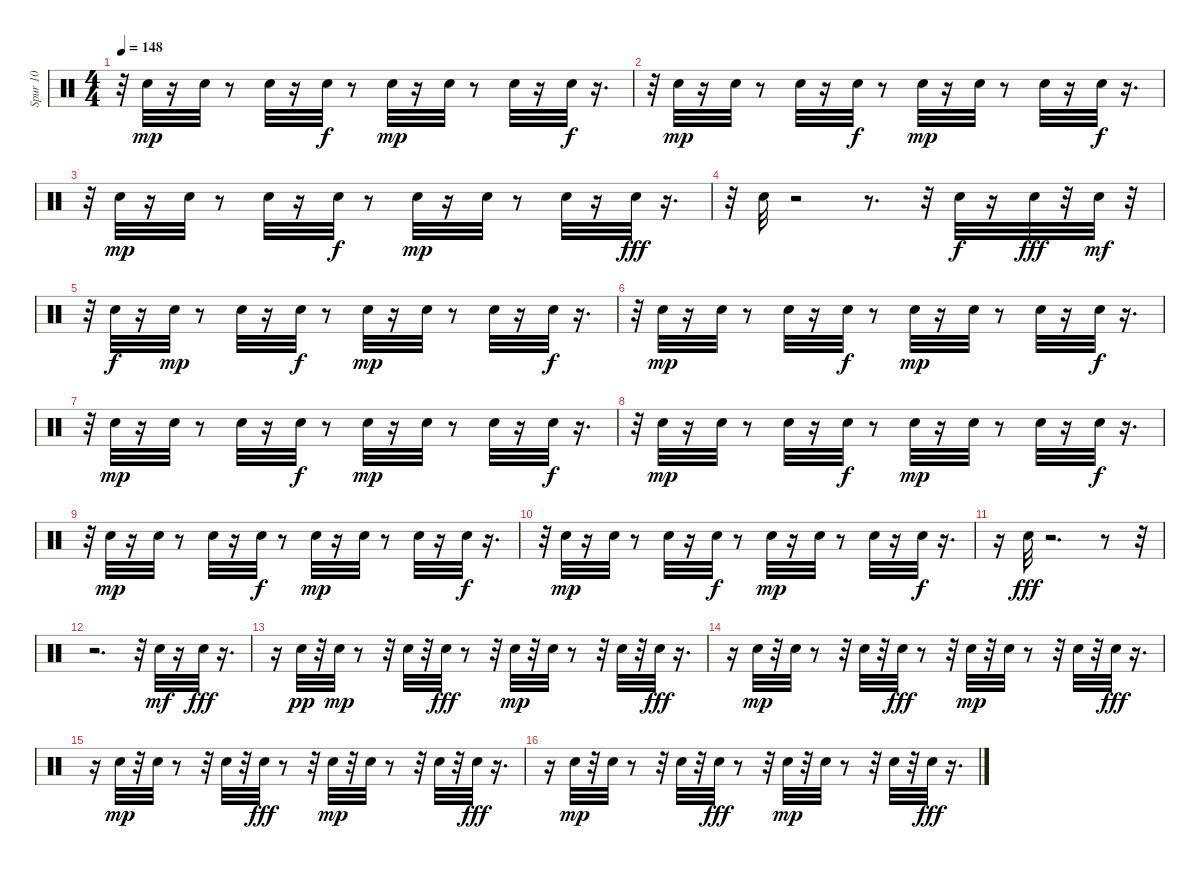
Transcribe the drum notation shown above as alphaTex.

\track ("Spur 10" "Spur 10") {instrument percussion}
\staff {score}
\articulation defaults
\ts (4 4)
\tempo 148
\clef neutral
\ks c
r.32{dy f} "Snare (hit) 2".32{dy mp} r.16 "Snare (hit) 2".32 r.8 "Snare (hit) 2".32 r.16 "Snare (hit) 2".32{dy f} r.8 "Snare (hit) 2".32{dy mp} r.16 "Snare (hit) 2".32 r.8 "Snare (hit) 2".32 r.16 "Snare (hit) 2".32{dy f} r.16{d} |
r.32 "Snare (hit) 2".32{dy mp} r.16 "Snare (hit) 2".32 r.8 "Snare (hit) 2".32 r.16 "Snare (hit) 2".32{dy f} r.8 "Snare (hit) 2".32{dy mp} r.16 "Snare (hit) 2".32 r.8 "Snare (hit) 2".32 r.16 "Snare (hit) 2".32{dy f} r.16{d} |
r.32 "Snare (hit) 2".32{dy mp} r.16 "Snare (hit) 2".32 r.8 "Snare (hit) 2".32 r.16 "Snare (hit) 2".32{dy f} r.8 "Snare (hit) 2".32{dy mp} r.16 "Snare (hit) 2".32 r.8 "Snare (hit) 2".32 r.16 "Snare (hit) 2".32{dy fff} r.16{d} |
r.32 "Snare (hit) 2".32 r.2 r.8{d} r.32 "Snare (hit) 2".32{dy f} r.16 "Snare (hit) 2".32{dy fff} r.32 "Snare (hit) 2".32{dy mf} r.32 |
r.32 "Snare (hit) 2".32{dy f} r.16 "Snare (hit) 2".32{dy mp} r.8 "Snare (hit) 2".32 r.16 "Snare (hit) 2".32{dy f} r.8 "Snare (hit) 2".32{dy mp} r.16 "Snare (hit) 2".32 r.8 "Snare (hit) 2".32 r.16 "Snare (hit) 2".32{dy f} r.16{d} |
r.32 "Snare (hit) 2".32{dy mp} r.16 "Snare (hit) 2".32 r.8 "Snare (hit) 2".32 r.16 "Snare (hit) 2".32{dy f} r.8 "Snare (hit) 2".32{dy mp} r.16 "Snare (hit) 2".32 r.8 "Snare (hit) 2".32 r.16 "Snare (hit) 2".32{dy f} r.16{d} |
r.32 "Snare (hit) 2".32{dy mp} r.16 "Snare (hit) 2".32 r.8 "Snare (hit) 2".32 r.16 "Snare (hit) 2".32{dy f} r.8 "Snare (hit) 2".32{dy mp} r.16 "Snare (hit) 2".32 r.8 "Snare (hit) 2".32 r.16 "Snare (hit) 2".32{dy f} r.16{d} |
r.32 "Snare (hit) 2".32{dy mp} r.16 "Snare (hit) 2".32 r.8 "Snare (hit) 2".32 r.16 "Snare (hit) 2".32{dy f} r.8 "Snare (hit) 2".32{dy mp} r.16 "Snare (hit) 2".32 r.8 "Snare (hit) 2".32 r.16 "Snare (hit) 2".32{dy f} r.16{d} |
r.32 "Snare (hit) 2".32{dy mp} r.16 "Snare (hit) 2".32 r.8 "Snare (hit) 2".32 r.16 "Snare (hit) 2".32{dy f} r.8 "Snare (hit) 2".32{dy mp} r.16 "Snare (hit) 2".32 r.8 "Snare (hit) 2".32 r.16 "Snare (hit) 2".32{dy f} r.16{d} |
r.32 "Snare (hit) 2".32{dy mp} r.16 "Snare (hit) 2".32 r.8 "Snare (hit) 2".32 r.16 "Snare (hit) 2".32{dy f} r.8 "Snare (hit) 2".32{dy mp} r.16 "Snare (hit) 2".32 r.8 "Snare (hit) 2".32 r.16 "Snare (hit) 2".32{dy f} r.16{d} |
r.16 "Snare (hit) 2".32{dy fff} r.2{d} r.8 r.32 |
r.2{d} r.32 "Snare (hit) 2".32{dy mf} r.16 "Snare (hit) 2".32{dy fff} r.16{d} |
r.16 "Snare (hit) 2".32{dy pp} r.32 "Snare (hit) 2".32{dy mp} r.8 r.32 "Snare (hit) 2".32 r.32 "Snare (hit) 2".32{dy fff} r.8 r.32 "Snare (hit) 2".32{dy mp} r.32 "Snare (hit) 2".32 r.8 r.32 "Snare (hit) 2".32 r.32 "Snare (hit) 2".32{dy fff} r.16{d} |
r.16 "Snare (hit) 2".32{dy mp} r.32 "Snare (hit) 2".32 r.8 r.32 "Snare (hit) 2".32 r.32 "Snare (hit) 2".32{dy fff} r.8 r.32 "Snare (hit) 2".32{dy mp} r.32 "Snare (hit) 2".32 r.8 r.32 "Snare (hit) 2".32 r.32 "Snare (hit) 2".32{dy fff} r.16{d} |
r.16 "Snare (hit) 2".32{dy mp} r.32 "Snare (hit) 2".32 r.8 r.32 "Snare (hit) 2".32 r.32 "Snare (hit) 2".32{dy fff} r.8 r.32 "Snare (hit) 2".32{dy mp} r.32 "Snare (hit) 2".32 r.8 r.32 "Snare (hit) 2".32 r.32 "Snare (hit) 2".32{dy fff} r.16{d} |
r.16 "Snare (hit) 2".32{dy mp} r.32 "Snare (hit) 2".32 r.8 r.32 "Snare (hit) 2".32 r.32 "Snare (hit) 2".32{dy fff} r.8 r.32 "Snare (hit) 2".32{dy mp} r.32 "Snare (hit) 2".32 r.8 r.32 "Snare (hit) 2".32 r.32 "Snare (hit) 2".32{dy fff} r.16{d}
